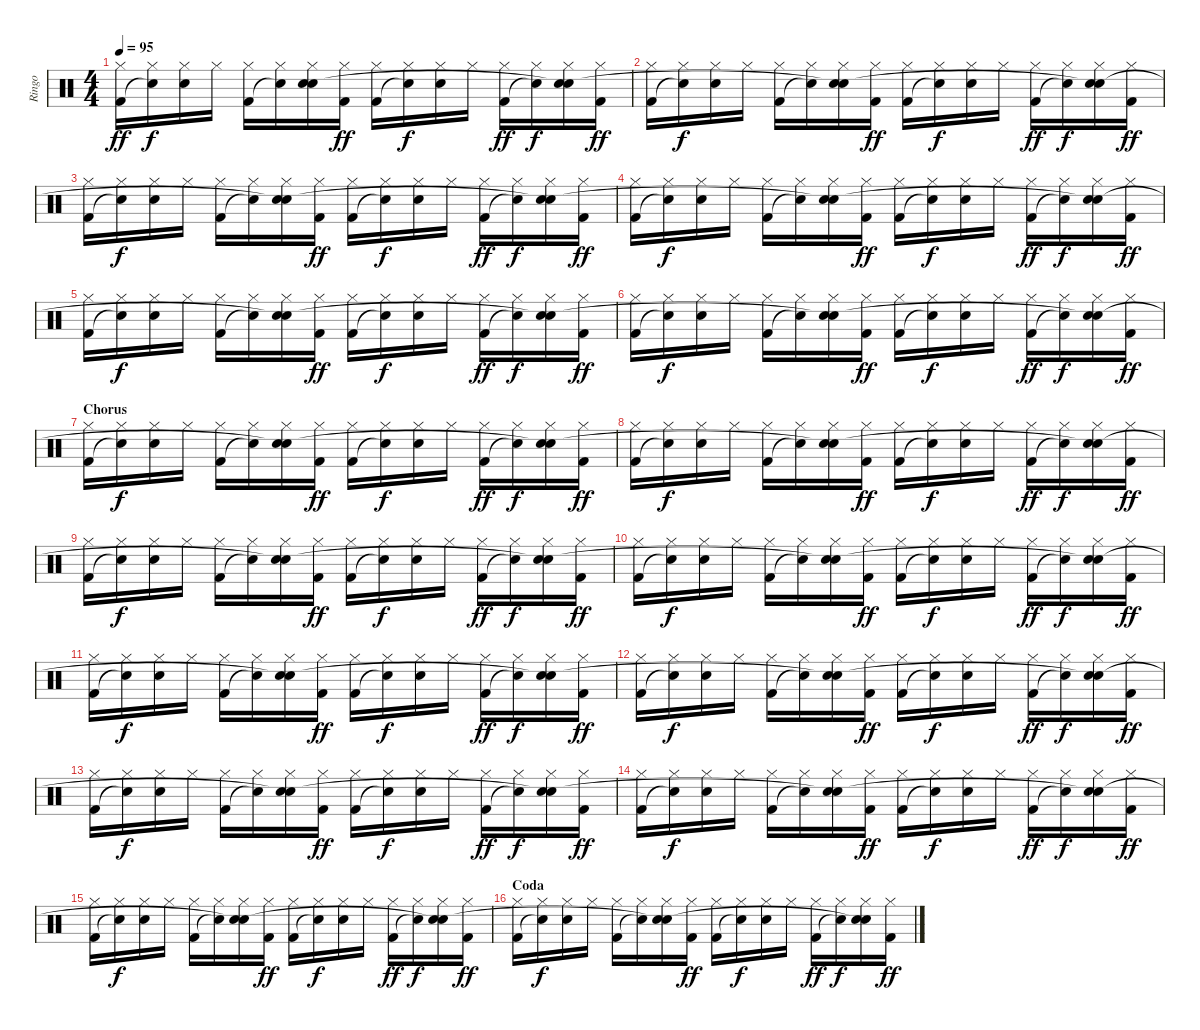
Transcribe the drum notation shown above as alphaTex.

\track ("Ringo" "Ringo") {instrument percussion}
\staff {score}
\articulation defaults
\ts (4 4)
\tempo 95
\clef neutral
\ks c
("Hi-Hat (closed)" "Kick (hit) 2").16{dy ff} ("Hi-Hat (closed)" "Snare (hit)"{t}).16{dy f} ("Hi-Hat (closed)" "Snare (hit) 2").16 "Hi-Hat (closed)".16 ("Hi-Hat (closed)" "Kick (hit) 2").16 ("Hi-Hat (closed)" "Snare (hit)"{t}).16 ("Hi-Hat (closed)" "Snare (hit) 2" "Snare (hit)"{t}).16 ("Hi-Hat (closed)" "Kick (hit) 2").16{dy ff} ("Hi-Hat (closed)" "Kick (hit) 2").16 ("Hi-Hat (closed)" "Snare (hit)"{t}).16{dy f} ("Hi-Hat (closed)" "Snare (hit) 2").16 "Hi-Hat (closed)".16 ("Hi-Hat (closed)" "Kick (hit) 2").16{dy ff} ("Hi-Hat (closed)" "Snare (hit)"{t}).16{dy f} ("Hi-Hat (closed)" "Snare (hit) 2" "Snare (hit)"{t}).16 ("Hi-Hat (closed)" "Kick (hit) 2").16{dy ff} |
("Hi-Hat (closed)" "Kick (hit) 2").16 ("Hi-Hat (closed)" "Snare (hit)"{t}).16{dy f} ("Hi-Hat (closed)" "Snare (hit) 2").16 "Hi-Hat (closed)".16 ("Hi-Hat (closed)" "Kick (hit) 2").16 ("Hi-Hat (closed)" "Snare (hit)"{t}).16 ("Hi-Hat (closed)" "Snare (hit) 2" "Snare (hit)"{t}).16 ("Hi-Hat (closed)" "Kick (hit) 2").16{dy ff} ("Hi-Hat (closed)" "Kick (hit) 2").16 ("Hi-Hat (closed)" "Snare (hit)"{t}).16{dy f} ("Hi-Hat (closed)" "Snare (hit) 2").16 "Hi-Hat (closed)".16 ("Hi-Hat (closed)" "Kick (hit) 2").16{dy ff} ("Hi-Hat (closed)" "Snare (hit)"{t}).16{dy f} ("Hi-Hat (closed)" "Snare (hit) 2" "Snare (hit)"{t}).16 ("Hi-Hat (closed)" "Kick (hit) 2").16{dy ff} |
("Hi-Hat (closed)" "Kick (hit) 2").16 ("Hi-Hat (closed)" "Snare (hit)"{t}).16{dy f} ("Hi-Hat (closed)" "Snare (hit) 2").16 "Hi-Hat (closed)".16 ("Hi-Hat (closed)" "Kick (hit) 2").16 ("Hi-Hat (closed)" "Snare (hit)"{t}).16 ("Hi-Hat (closed)" "Snare (hit) 2" "Snare (hit)"{t}).16 ("Hi-Hat (closed)" "Kick (hit) 2").16{dy ff} ("Hi-Hat (closed)" "Kick (hit) 2").16 ("Hi-Hat (closed)" "Snare (hit)"{t}).16{dy f} ("Hi-Hat (closed)" "Snare (hit) 2").16 "Hi-Hat (closed)".16 ("Hi-Hat (closed)" "Kick (hit) 2").16{dy ff} ("Hi-Hat (closed)" "Snare (hit)"{t}).16{dy f} ("Hi-Hat (closed)" "Snare (hit) 2" "Snare (hit)"{t}).16 ("Hi-Hat (closed)" "Kick (hit) 2").16{dy ff} |
("Hi-Hat (closed)" "Kick (hit) 2").16 ("Hi-Hat (closed)" "Snare (hit)"{t}).16{dy f} ("Hi-Hat (closed)" "Snare (hit) 2").16 "Hi-Hat (closed)".16 ("Hi-Hat (closed)" "Kick (hit) 2").16 ("Hi-Hat (closed)" "Snare (hit)"{t}).16 ("Hi-Hat (closed)" "Snare (hit) 2" "Snare (hit)"{t}).16 ("Hi-Hat (closed)" "Kick (hit) 2").16{dy ff} ("Hi-Hat (closed)" "Kick (hit) 2").16 ("Hi-Hat (closed)" "Snare (hit)"{t}).16{dy f} ("Hi-Hat (closed)" "Snare (hit) 2").16 "Hi-Hat (closed)".16 ("Hi-Hat (closed)" "Kick (hit) 2").16{dy ff} ("Hi-Hat (closed)" "Snare (hit)"{t}).16{dy f} ("Hi-Hat (closed)" "Snare (hit) 2" "Snare (hit)"{t}).16 ("Hi-Hat (closed)" "Kick (hit) 2").16{dy ff} |
("Hi-Hat (closed)" "Kick (hit) 2").16 ("Hi-Hat (closed)" "Snare (hit)"{t}).16{dy f} ("Hi-Hat (closed)" "Snare (hit) 2").16 "Hi-Hat (closed)".16 ("Hi-Hat (closed)" "Kick (hit) 2").16 ("Hi-Hat (closed)" "Snare (hit)"{t}).16 ("Hi-Hat (closed)" "Snare (hit) 2" "Snare (hit)"{t}).16 ("Hi-Hat (closed)" "Kick (hit) 2").16{dy ff} ("Hi-Hat (closed)" "Kick (hit) 2").16 ("Hi-Hat (closed)" "Snare (hit)"{t}).16{dy f} ("Hi-Hat (closed)" "Snare (hit) 2").16 "Hi-Hat (closed)".16 ("Hi-Hat (closed)" "Kick (hit) 2").16{dy ff} ("Hi-Hat (closed)" "Snare (hit)"{t}).16{dy f} ("Hi-Hat (closed)" "Snare (hit) 2" "Snare (hit)"{t}).16 ("Hi-Hat (closed)" "Kick (hit) 2").16{dy ff} |
("Hi-Hat (closed)" "Kick (hit) 2").16 ("Hi-Hat (closed)" "Snare (hit)"{t}).16{dy f} ("Hi-Hat (closed)" "Snare (hit) 2").16 "Hi-Hat (closed)".16 ("Hi-Hat (closed)" "Kick (hit) 2").16 ("Hi-Hat (closed)" "Snare (hit)"{t}).16 ("Hi-Hat (closed)" "Snare (hit) 2" "Snare (hit)"{t}).16 ("Hi-Hat (closed)" "Kick (hit) 2").16{dy ff} ("Hi-Hat (closed)" "Kick (hit) 2").16 ("Hi-Hat (closed)" "Snare (hit)"{t}).16{dy f} ("Hi-Hat (closed)" "Snare (hit) 2").16 "Hi-Hat (closed)".16 ("Hi-Hat (closed)" "Kick (hit) 2").16{dy ff} ("Hi-Hat (closed)" "Snare (hit)"{t}).16{dy f} ("Hi-Hat (closed)" "Snare (hit) 2" "Snare (hit)"{t}).16 ("Hi-Hat (closed)" "Kick (hit) 2").16{dy ff} |
\section ("" "Chorus")
("Hi-Hat (closed)" "Kick (hit) 2").16 ("Hi-Hat (closed)" "Snare (hit)"{t}).16{dy f} ("Hi-Hat (closed)" "Snare (hit) 2").16 "Hi-Hat (closed)".16 ("Hi-Hat (closed)" "Kick (hit) 2").16 ("Hi-Hat (closed)" "Snare (hit)"{t}).16 ("Hi-Hat (closed)" "Snare (hit) 2" "Snare (hit)"{t}).16 ("Hi-Hat (closed)" "Kick (hit) 2").16{dy ff} ("Hi-Hat (closed)" "Kick (hit) 2").16 ("Hi-Hat (closed)" "Snare (hit)"{t}).16{dy f} ("Hi-Hat (closed)" "Snare (hit) 2").16 "Hi-Hat (closed)".16 ("Hi-Hat (closed)" "Kick (hit) 2").16{dy ff} ("Hi-Hat (closed)" "Snare (hit)"{t}).16{dy f} ("Hi-Hat (closed)" "Snare (hit) 2" "Snare (hit)"{t}).16 ("Hi-Hat (closed)" "Kick (hit) 2").16{dy ff} |
("Hi-Hat (closed)" "Kick (hit) 2").16 ("Hi-Hat (closed)" "Snare (hit)"{t}).16{dy f} ("Hi-Hat (closed)" "Snare (hit) 2").16 "Hi-Hat (closed)".16 ("Hi-Hat (closed)" "Kick (hit) 2").16 ("Hi-Hat (closed)" "Snare (hit)"{t}).16 ("Hi-Hat (closed)" "Snare (hit) 2" "Snare (hit)"{t}).16 ("Hi-Hat (closed)" "Kick (hit) 2").16{dy ff} ("Hi-Hat (closed)" "Kick (hit) 2").16 ("Hi-Hat (closed)" "Snare (hit)"{t}).16{dy f} ("Hi-Hat (closed)" "Snare (hit) 2").16 "Hi-Hat (closed)".16 ("Hi-Hat (closed)" "Kick (hit) 2").16{dy ff} ("Hi-Hat (closed)" "Snare (hit)"{t}).16{dy f} ("Hi-Hat (closed)" "Snare (hit) 2" "Snare (hit)"{t}).16 ("Hi-Hat (closed)" "Kick (hit) 2").16{dy ff} |
("Hi-Hat (closed)" "Kick (hit) 2").16 ("Hi-Hat (closed)" "Snare (hit)"{t}).16{dy f} ("Hi-Hat (closed)" "Snare (hit) 2").16 "Hi-Hat (closed)".16 ("Hi-Hat (closed)" "Kick (hit) 2").16 ("Hi-Hat (closed)" "Snare (hit)"{t}).16 ("Hi-Hat (closed)" "Snare (hit) 2" "Snare (hit)"{t}).16 ("Hi-Hat (closed)" "Kick (hit) 2").16{dy ff} ("Hi-Hat (closed)" "Kick (hit) 2").16 ("Hi-Hat (closed)" "Snare (hit)"{t}).16{dy f} ("Hi-Hat (closed)" "Snare (hit) 2").16 "Hi-Hat (closed)".16 ("Hi-Hat (closed)" "Kick (hit) 2").16{dy ff} ("Hi-Hat (closed)" "Snare (hit)"{t}).16{dy f} ("Hi-Hat (closed)" "Snare (hit) 2" "Snare (hit)"{t}).16 ("Hi-Hat (closed)" "Kick (hit) 2").16{dy ff} |
("Hi-Hat (closed)" "Kick (hit) 2").16 ("Hi-Hat (closed)" "Snare (hit)"{t}).16{dy f} ("Hi-Hat (closed)" "Snare (hit) 2").16 "Hi-Hat (closed)".16 ("Hi-Hat (closed)" "Kick (hit) 2").16 ("Hi-Hat (closed)" "Snare (hit)"{t}).16 ("Hi-Hat (closed)" "Snare (hit) 2" "Snare (hit)"{t}).16 ("Hi-Hat (closed)" "Kick (hit) 2").16{dy ff} ("Hi-Hat (closed)" "Kick (hit) 2").16 ("Hi-Hat (closed)" "Snare (hit)"{t}).16{dy f} ("Hi-Hat (closed)" "Snare (hit) 2").16 "Hi-Hat (closed)".16 ("Hi-Hat (closed)" "Kick (hit) 2").16{dy ff} ("Hi-Hat (closed)" "Snare (hit)"{t}).16{dy f} ("Hi-Hat (closed)" "Snare (hit) 2" "Snare (hit)"{t}).16 ("Hi-Hat (closed)" "Kick (hit) 2").16{dy ff} |
("Hi-Hat (closed)" "Kick (hit) 2").16 ("Hi-Hat (closed)" "Snare (hit)"{t}).16{dy f} ("Hi-Hat (closed)" "Snare (hit) 2").16 "Hi-Hat (closed)".16 ("Hi-Hat (closed)" "Kick (hit) 2").16 ("Hi-Hat (closed)" "Snare (hit)"{t}).16 ("Hi-Hat (closed)" "Snare (hit) 2" "Snare (hit)"{t}).16 ("Hi-Hat (closed)" "Kick (hit) 2").16{dy ff} ("Hi-Hat (closed)" "Kick (hit) 2").16 ("Hi-Hat (closed)" "Snare (hit)"{t}).16{dy f} ("Hi-Hat (closed)" "Snare (hit) 2").16 "Hi-Hat (closed)".16 ("Hi-Hat (closed)" "Kick (hit) 2").16{dy ff} ("Hi-Hat (closed)" "Snare (hit)"{t}).16{dy f} ("Hi-Hat (closed)" "Snare (hit) 2" "Snare (hit)"{t}).16 ("Hi-Hat (closed)" "Kick (hit) 2").16{dy ff} |
("Hi-Hat (closed)" "Kick (hit) 2").16 ("Hi-Hat (closed)" "Snare (hit)"{t}).16{dy f} ("Hi-Hat (closed)" "Snare (hit) 2").16 "Hi-Hat (closed)".16 ("Hi-Hat (closed)" "Kick (hit) 2").16 ("Hi-Hat (closed)" "Snare (hit)"{t}).16 ("Hi-Hat (closed)" "Snare (hit) 2" "Snare (hit)"{t}).16 ("Hi-Hat (closed)" "Kick (hit) 2").16{dy ff} ("Hi-Hat (closed)" "Kick (hit) 2").16 ("Hi-Hat (closed)" "Snare (hit)"{t}).16{dy f} ("Hi-Hat (closed)" "Snare (hit) 2").16 "Hi-Hat (closed)".16 ("Hi-Hat (closed)" "Kick (hit) 2").16{dy ff} ("Hi-Hat (closed)" "Snare (hit)"{t}).16{dy f} ("Hi-Hat (closed)" "Snare (hit) 2" "Snare (hit)"{t}).16 ("Hi-Hat (closed)" "Kick (hit) 2").16{dy ff} |
("Hi-Hat (closed)" "Kick (hit) 2").16 ("Hi-Hat (closed)" "Snare (hit)"{t}).16{dy f} ("Hi-Hat (closed)" "Snare (hit) 2").16 "Hi-Hat (closed)".16 ("Hi-Hat (closed)" "Kick (hit) 2").16 ("Hi-Hat (closed)" "Snare (hit)"{t}).16 ("Hi-Hat (closed)" "Snare (hit) 2" "Snare (hit)"{t}).16 ("Hi-Hat (closed)" "Kick (hit) 2").16{dy ff} ("Hi-Hat (closed)" "Kick (hit) 2").16 ("Hi-Hat (closed)" "Snare (hit)"{t}).16{dy f} ("Hi-Hat (closed)" "Snare (hit) 2").16 "Hi-Hat (closed)".16 ("Hi-Hat (closed)" "Kick (hit) 2").16{dy ff} ("Hi-Hat (closed)" "Snare (hit)"{t}).16{dy f} ("Hi-Hat (closed)" "Snare (hit) 2" "Snare (hit)"{t}).16 ("Hi-Hat (closed)" "Kick (hit) 2").16{dy ff} |
("Hi-Hat (closed)" "Kick (hit) 2").16 ("Hi-Hat (closed)" "Snare (hit)"{t}).16{dy f} ("Hi-Hat (closed)" "Snare (hit) 2").16 "Hi-Hat (closed)".16 ("Hi-Hat (closed)" "Kick (hit) 2").16 ("Hi-Hat (closed)" "Snare (hit)"{t}).16 ("Hi-Hat (closed)" "Snare (hit) 2" "Snare (hit)"{t}).16 ("Hi-Hat (closed)" "Kick (hit) 2").16{dy ff} ("Hi-Hat (closed)" "Kick (hit) 2").16 ("Hi-Hat (closed)" "Snare (hit)"{t}).16{dy f} ("Hi-Hat (closed)" "Snare (hit) 2").16 "Hi-Hat (closed)".16 ("Hi-Hat (closed)" "Kick (hit) 2").16{dy ff} ("Hi-Hat (closed)" "Snare (hit)"{t}).16{dy f} ("Hi-Hat (closed)" "Snare (hit) 2" "Snare (hit)"{t}).16 ("Hi-Hat (closed)" "Kick (hit) 2").16{dy ff} |
("Hi-Hat (closed)" "Kick (hit) 2").16 ("Hi-Hat (closed)" "Snare (hit)"{t}).16{dy f} ("Hi-Hat (closed)" "Snare (hit) 2").16 "Hi-Hat (closed)".16 ("Hi-Hat (closed)" "Kick (hit) 2").16 ("Hi-Hat (closed)" "Snare (hit)"{t}).16 ("Hi-Hat (closed)" "Snare (hit) 2" "Snare (hit)"{t}).16 ("Hi-Hat (closed)" "Kick (hit) 2").16{dy ff} ("Hi-Hat (closed)" "Kick (hit) 2").16 ("Hi-Hat (closed)" "Snare (hit)"{t}).16{dy f} ("Hi-Hat (closed)" "Snare (hit) 2").16 "Hi-Hat (closed)".16 ("Hi-Hat (closed)" "Kick (hit) 2").16{dy ff} ("Hi-Hat (closed)" "Snare (hit)"{t}).16{dy f} ("Hi-Hat (closed)" "Snare (hit) 2" "Snare (hit)"{t}).16 ("Hi-Hat (closed)" "Kick (hit) 2").16{dy ff} |
\section ("" "Coda")
("Hi-Hat (closed)" "Kick (hit) 2").16 ("Hi-Hat (closed)" "Snare (hit)"{t}).16{dy f} ("Hi-Hat (closed)" "Snare (hit) 2").16 "Hi-Hat (closed)".16 ("Hi-Hat (closed)" "Kick (hit) 2").16 ("Hi-Hat (closed)" "Snare (hit)"{t}).16 ("Hi-Hat (closed)" "Snare (hit) 2" "Snare (hit)"{t}).16 ("Hi-Hat (closed)" "Kick (hit) 2").16{dy ff} ("Hi-Hat (closed)" "Kick (hit) 2").16 ("Hi-Hat (closed)" "Snare (hit)"{t}).16{dy f} ("Hi-Hat (closed)" "Snare (hit) 2").16 "Hi-Hat (closed)".16 ("Hi-Hat (closed)" "Kick (hit) 2").16{dy ff} ("Hi-Hat (closed)" "Snare (hit)"{t}).16{dy f} ("Hi-Hat (closed)" "Snare (hit) 2" "Snare (hit)"{t}).16 ("Hi-Hat (closed)" "Kick (hit) 2").16{dy ff}
